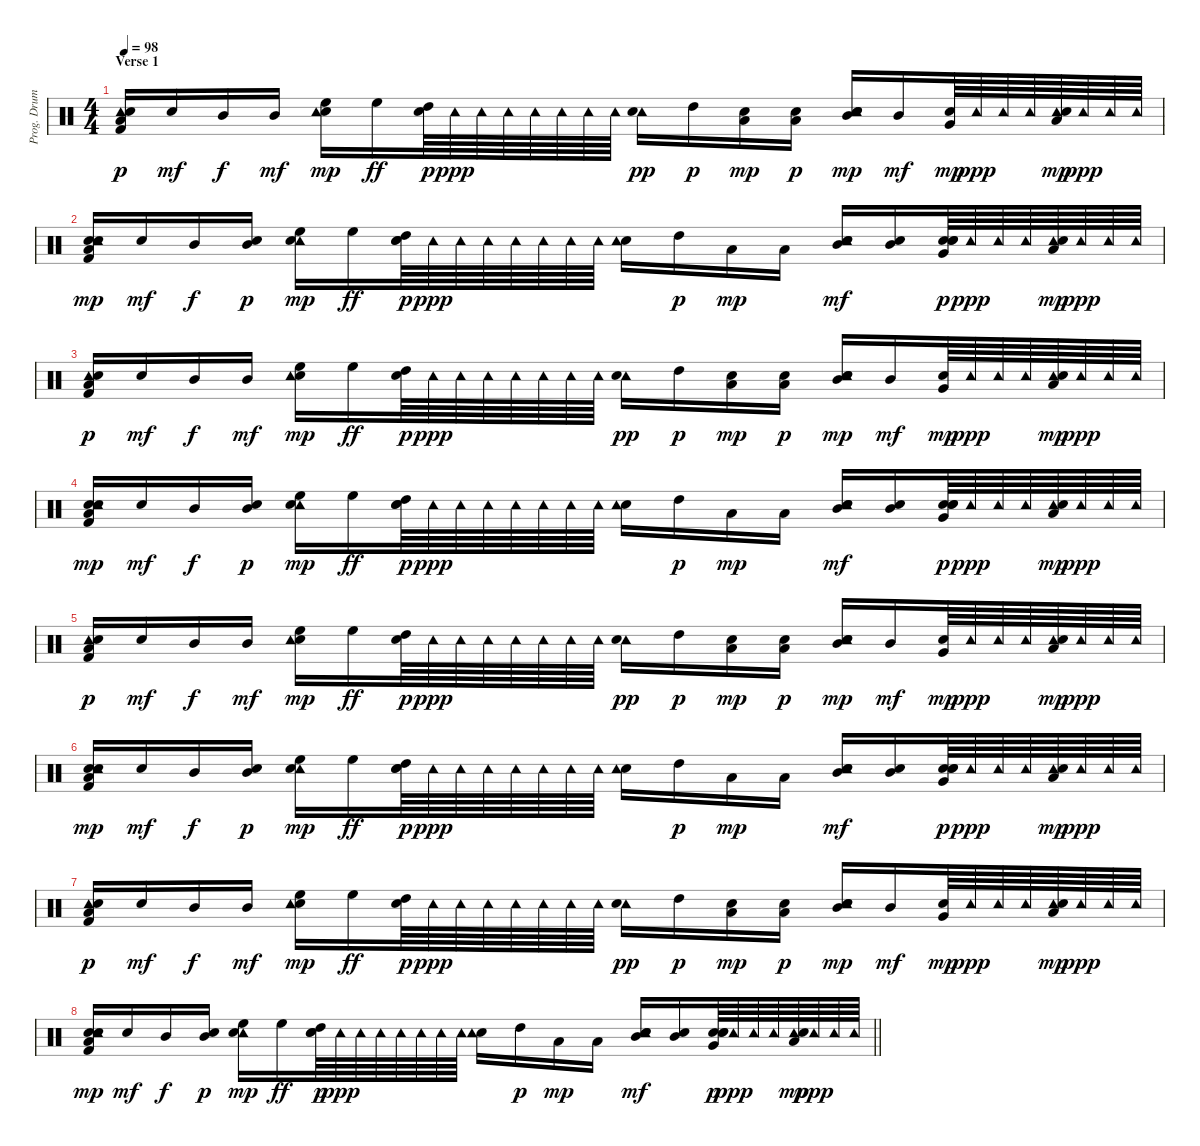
\track ("Prog. Drums" "Prog. Drum") {instrument percussion}
\staff {score}
\articulation defaults
\ts (4 4)
\section ("" "Verse 1")
\tempo 98
\clef neutral
\ks c
("Tambourine (hit)" "Snare (hit)" "Low Floor Tom (hit)" "Kick (hit) 2").16{dy p} "Snare (hit)".16{dy mf} "Mid Tom (hit)".16{dy f} "Mid Tom (hit)".16{dy mf} ("Snare (hit) 2" "High Floor Tom (hit)" "Tambourine (hit)").16{dy mp} "High Floor Tom (hit)".16{dy ff} ("High Tom (hit)" "Snare (hit)").64{dy p} "Tambourine (hit)".64{dy ppp} "Tambourine (hit)".64 "Tambourine (hit)".64 "Tambourine (hit)".64 "Tambourine (hit)".64 "Tambourine (hit)".64 "Tambourine (hit)".64 ("Tambourine (hit)" "Snare (hit) 2").16{dy pp} "High Tom (hit)".16{dy p} ("Snare (hit)" "Low Tom (hit)").16{dy mp} ("Low Tom (hit)" "Snare (hit)").16{dy p} ("Snare (hit) 2" "Mid Tom (hit)" "Snare (hit)" "Tambourine (hit)").16{dy mp} "Mid Tom (hit)".16{dy mf} ("Snare (hit)" "Very Low Tom (hit)").64{dy mp} "Tambourine (hit)".64{dy ppp} "Tambourine (hit)".64 "Tambourine (hit)".64 ("Tambourine (hit)" "Snare (hit) 2" "Low Tom (hit)").64{dy mp} "Tambourine (hit)".64{dy ppp} "Tambourine (hit)".64 "Tambourine (hit)".64 |
("Snare (hit)" "Snare (hit)" "Tambourine (hit)" "Kick (hit) 2" "Low Floor Tom (hit)").16{dy mp} "Snare (hit)".16{dy mf} "Mid Tom (hit)".16{dy f} ("Mid Tom (hit)" "Snare (hit)").16{dy p} ("Tambourine (hit)" "High Floor Tom (hit)" "Snare (hit) 2").16{dy mp} "High Floor Tom (hit)".16{dy ff} ("High Tom (hit)" "Snare (hit)" "Snare (hit)").64{dy p} "Tambourine (hit)".64{dy ppp} "Tambourine (hit)".64 "Tambourine (hit)".64 "Tambourine (hit)".64 "Tambourine (hit)".64 "Tambourine (hit)".64 "Tambourine (hit)".64 ("Snare (hit) 2" "Tambourine (hit)").16 "High Tom (hit)".16{dy p} "Low Tom (hit)".16{dy mp} "Low Tom (hit)".16 ("Tambourine (hit)" "Snare (hit)" "Snare (hit) 2" "Mid Tom (hit)").16{dy mf} ("Snare (hit) 2" "Mid Tom (hit)").16 ("Snare (hit) 2" "Very Low Tom (hit)" "Snare (hit)" "Snare (hit)").64{dy p} "Tambourine (hit)".64{dy ppp} "Tambourine (hit)".64 "Tambourine (hit)".64 ("Tambourine (hit)" "Snare (hit) 2" "Low Tom (hit)").64{dy mp} "Tambourine (hit)".64{dy ppp} "Tambourine (hit)".64 "Tambourine (hit)".64 |
("Tambourine (hit)" "Snare (hit)" "Low Floor Tom (hit)" "Kick (hit) 2").16{dy p} "Snare (hit)".16{dy mf} "Mid Tom (hit)".16{dy f} "Mid Tom (hit)".16{dy mf} ("Snare (hit) 2" "High Floor Tom (hit)" "Tambourine (hit)").16{dy mp} "High Floor Tom (hit)".16{dy ff} ("High Tom (hit)" "Snare (hit)").64{dy p} "Tambourine (hit)".64{dy ppp} "Tambourine (hit)".64 "Tambourine (hit)".64 "Tambourine (hit)".64 "Tambourine (hit)".64 "Tambourine (hit)".64 "Tambourine (hit)".64 ("Tambourine (hit)" "Snare (hit) 2").16{dy pp} "High Tom (hit)".16{dy p} ("Snare (hit)" "Low Tom (hit)").16{dy mp} ("Low Tom (hit)" "Snare (hit)").16{dy p} ("Snare (hit) 2" "Mid Tom (hit)" "Snare (hit)" "Tambourine (hit)").16{dy mp} "Mid Tom (hit)".16{dy mf} ("Snare (hit)" "Very Low Tom (hit)").64{dy mp} "Tambourine (hit)".64{dy ppp} "Tambourine (hit)".64 "Tambourine (hit)".64 ("Tambourine (hit)" "Snare (hit) 2" "Low Tom (hit)").64{dy mp} "Tambourine (hit)".64{dy ppp} "Tambourine (hit)".64 "Tambourine (hit)".64 |
("Snare (hit)" "Snare (hit)" "Tambourine (hit)" "Kick (hit) 2" "Low Floor Tom (hit)").16{dy mp} "Snare (hit)".16{dy mf} "Mid Tom (hit)".16{dy f} ("Mid Tom (hit)" "Snare (hit)").16{dy p} ("Tambourine (hit)" "High Floor Tom (hit)" "Snare (hit) 2").16{dy mp} "High Floor Tom (hit)".16{dy ff} ("High Tom (hit)" "Snare (hit)" "Snare (hit)").64{dy p} "Tambourine (hit)".64{dy ppp} "Tambourine (hit)".64 "Tambourine (hit)".64 "Tambourine (hit)".64 "Tambourine (hit)".64 "Tambourine (hit)".64 "Tambourine (hit)".64 ("Snare (hit) 2" "Tambourine (hit)").16 "High Tom (hit)".16{dy p} "Low Tom (hit)".16{dy mp} "Low Tom (hit)".16 ("Tambourine (hit)" "Snare (hit)" "Snare (hit) 2" "Mid Tom (hit)").16{dy mf} ("Snare (hit) 2" "Mid Tom (hit)").16 ("Snare (hit) 2" "Very Low Tom (hit)" "Snare (hit)" "Snare (hit)").64{dy p} "Tambourine (hit)".64{dy ppp} "Tambourine (hit)".64 "Tambourine (hit)".64 ("Tambourine (hit)" "Snare (hit) 2" "Low Tom (hit)").64{dy mp} "Tambourine (hit)".64{dy ppp} "Tambourine (hit)".64 "Tambourine (hit)".64 |
("Tambourine (hit)" "Snare (hit)" "Low Floor Tom (hit)" "Kick (hit) 2").16{dy p} "Snare (hit)".16{dy mf} "Mid Tom (hit)".16{dy f} "Mid Tom (hit)".16{dy mf} ("Snare (hit) 2" "High Floor Tom (hit)" "Tambourine (hit)").16{dy mp} "High Floor Tom (hit)".16{dy ff} ("High Tom (hit)" "Snare (hit)").64{dy p} "Tambourine (hit)".64{dy ppp} "Tambourine (hit)".64 "Tambourine (hit)".64 "Tambourine (hit)".64 "Tambourine (hit)".64 "Tambourine (hit)".64 "Tambourine (hit)".64 ("Tambourine (hit)" "Snare (hit) 2").16{dy pp} "High Tom (hit)".16{dy p} ("Snare (hit)" "Low Tom (hit)").16{dy mp} ("Low Tom (hit)" "Snare (hit)").16{dy p} ("Snare (hit) 2" "Mid Tom (hit)" "Snare (hit)" "Tambourine (hit)").16{dy mp} "Mid Tom (hit)".16{dy mf} ("Snare (hit)" "Very Low Tom (hit)").64{dy mp} "Tambourine (hit)".64{dy ppp} "Tambourine (hit)".64 "Tambourine (hit)".64 ("Tambourine (hit)" "Snare (hit) 2" "Low Tom (hit)").64{dy mp} "Tambourine (hit)".64{dy ppp} "Tambourine (hit)".64 "Tambourine (hit)".64 |
("Snare (hit)" "Snare (hit)" "Tambourine (hit)" "Kick (hit) 2" "Low Floor Tom (hit)").16{dy mp} "Snare (hit)".16{dy mf} "Mid Tom (hit)".16{dy f} ("Mid Tom (hit)" "Snare (hit)").16{dy p} ("Tambourine (hit)" "High Floor Tom (hit)" "Snare (hit) 2").16{dy mp} "High Floor Tom (hit)".16{dy ff} ("High Tom (hit)" "Snare (hit)" "Snare (hit)").64{dy p} "Tambourine (hit)".64{dy ppp} "Tambourine (hit)".64 "Tambourine (hit)".64 "Tambourine (hit)".64 "Tambourine (hit)".64 "Tambourine (hit)".64 "Tambourine (hit)".64 ("Snare (hit) 2" "Tambourine (hit)").16 "High Tom (hit)".16{dy p} "Low Tom (hit)".16{dy mp} "Low Tom (hit)".16 ("Tambourine (hit)" "Snare (hit)" "Snare (hit) 2" "Mid Tom (hit)").16{dy mf} ("Snare (hit) 2" "Mid Tom (hit)").16 ("Snare (hit) 2" "Very Low Tom (hit)" "Snare (hit)" "Snare (hit)").64{dy p} "Tambourine (hit)".64{dy ppp} "Tambourine (hit)".64 "Tambourine (hit)".64 ("Tambourine (hit)" "Snare (hit) 2" "Low Tom (hit)").64{dy mp} "Tambourine (hit)".64{dy ppp} "Tambourine (hit)".64 "Tambourine (hit)".64 |
("Tambourine (hit)" "Snare (hit)" "Low Floor Tom (hit)" "Kick (hit) 2").16{dy p} "Snare (hit)".16{dy mf} "Mid Tom (hit)".16{dy f} "Mid Tom (hit)".16{dy mf} ("Snare (hit) 2" "High Floor Tom (hit)" "Tambourine (hit)").16{dy mp} "High Floor Tom (hit)".16{dy ff} ("High Tom (hit)" "Snare (hit)").64{dy p} "Tambourine (hit)".64{dy ppp} "Tambourine (hit)".64 "Tambourine (hit)".64 "Tambourine (hit)".64 "Tambourine (hit)".64 "Tambourine (hit)".64 "Tambourine (hit)".64 ("Tambourine (hit)" "Snare (hit) 2").16{dy pp} "High Tom (hit)".16{dy p} ("Snare (hit)" "Low Tom (hit)").16{dy mp} ("Low Tom (hit)" "Snare (hit)").16{dy p} ("Snare (hit) 2" "Mid Tom (hit)" "Snare (hit)" "Tambourine (hit)").16{dy mp} "Mid Tom (hit)".16{dy mf} ("Snare (hit)" "Very Low Tom (hit)").64{dy mp} "Tambourine (hit)".64{dy ppp} "Tambourine (hit)".64 "Tambourine (hit)".64 ("Tambourine (hit)" "Snare (hit) 2" "Low Tom (hit)").64{dy mp} "Tambourine (hit)".64{dy ppp} "Tambourine (hit)".64 "Tambourine (hit)".64 |
\barLineRight lightlight
("Snare (hit)" "Snare (hit)" "Tambourine (hit)" "Kick (hit) 2" "Low Floor Tom (hit)").16{dy mp} "Snare (hit)".16{dy mf} "Mid Tom (hit)".16{dy f} ("Mid Tom (hit)" "Snare (hit)").16{dy p} ("Tambourine (hit)" "High Floor Tom (hit)" "Snare (hit) 2").16{dy mp} "High Floor Tom (hit)".16{dy ff} ("High Tom (hit)" "Snare (hit)" "Snare (hit)").64{dy p} "Tambourine (hit)".64{dy ppp} "Tambourine (hit)".64 "Tambourine (hit)".64 "Tambourine (hit)".64 "Tambourine (hit)".64 "Tambourine (hit)".64 "Tambourine (hit)".64 ("Snare (hit) 2" "Tambourine (hit)").16 "High Tom (hit)".16{dy p} "Low Tom (hit)".16{dy mp} "Low Tom (hit)".16 ("Tambourine (hit)" "Snare (hit)" "Snare (hit) 2" "Mid Tom (hit)").16{dy mf} ("Snare (hit) 2" "Mid Tom (hit)").16 ("Snare (hit) 2" "Very Low Tom (hit)" "Snare (hit)" "Snare (hit)").64{dy p} "Tambourine (hit)".64{dy ppp} "Tambourine (hit)".64 "Tambourine (hit)".64 ("Tambourine (hit)" "Snare (hit) 2" "Low Tom (hit)").64{dy mp} "Tambourine (hit)".64{dy ppp} "Tambourine (hit)".64 "Tambourine (hit)".64
